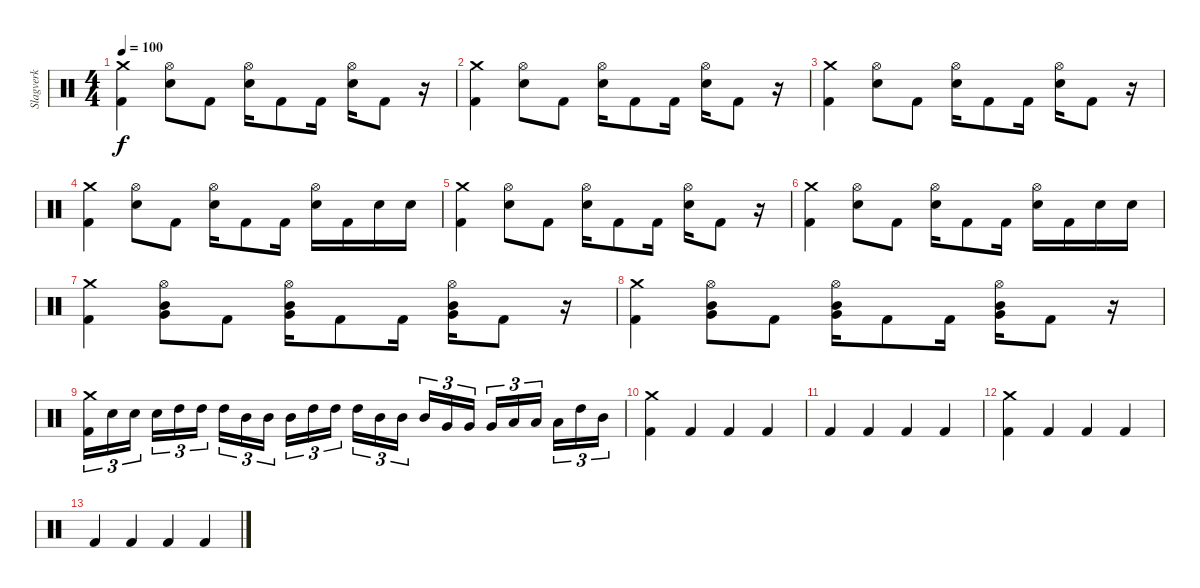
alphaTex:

\track ("Slagverk" "Slagverk") {instrument percussion}
\staff {score}
\articulation defaults
\ts (4 4)
\tempo 100
\clef neutral
\ks c
("Crash medium (hit)" "Kick (hit) 2").4{dy f} ("Hi-Hat (open)" "Electric Snare (hit)").8 "Kick (hit) 2".8 ("Hi-Hat (open)" "Electric Snare (hit)").16 "Kick (hit) 2".8 "Kick (hit) 2".16 ("Hi-Hat (open)" "Electric Snare (hit)").16 "Kick (hit) 2".8 r.16 |
("Crash medium (hit)" "Kick (hit) 2").4 ("Hi-Hat (open)" "Electric Snare (hit)").8 "Kick (hit) 2".8 ("Hi-Hat (open)" "Electric Snare (hit)").16 "Kick (hit) 2".8 "Kick (hit) 2".16 ("Hi-Hat (open)" "Electric Snare (hit)").16 "Kick (hit) 2".8 r.16 |
("Crash medium (hit)" "Kick (hit) 2").4 ("Hi-Hat (open)" "Electric Snare (hit)").8 "Kick (hit) 2".8 ("Hi-Hat (open)" "Electric Snare (hit)").16 "Kick (hit) 2".8 "Kick (hit) 2".16 ("Hi-Hat (open)" "Electric Snare (hit)").16 "Kick (hit) 2".8 r.16 |
("Crash medium (hit)" "Kick (hit) 2").4 ("Hi-Hat (open)" "Electric Snare (hit)").8 "Kick (hit) 2".8 ("Hi-Hat (open)" "Electric Snare (hit)").16 "Kick (hit) 2".8 "Kick (hit) 2".16 ("Hi-Hat (open)" "Electric Snare (hit)").16 "Kick (hit) 2".16 "Electric Snare (hit)".16 "Electric Snare (hit)".16 |
("Crash medium (hit)" "Kick (hit) 2").4 ("Hi-Hat (open)" "Electric Snare (hit)").8 "Kick (hit) 2".8 ("Hi-Hat (open)" "Electric Snare (hit)").16 "Kick (hit) 2".8 "Kick (hit) 2".16 ("Hi-Hat (open)" "Electric Snare (hit)").16 "Kick (hit) 2".8 r.16 |
("Crash medium (hit)" "Kick (hit) 2").4 ("Hi-Hat (open)" "Electric Snare (hit)").8 "Kick (hit) 2".8 ("Hi-Hat (open)" "Electric Snare (hit)").16 "Kick (hit) 2".8 "Kick (hit) 2".16 ("Hi-Hat (open)" "Electric Snare (hit)").16 "Kick (hit) 2".16 "Electric Snare (hit)".16 "Electric Snare (hit)".16 |
("Crash medium (hit)" "Kick (hit) 2").4 ("Hi-Hat (open)" "Very Low Tom (hit)" "Mid Tom (hit)").8 "Kick (hit) 2".8 ("Hi-Hat (open)" "Very Low Tom (hit)" "Mid Tom (hit)").16 "Kick (hit) 2".8 "Kick (hit) 2".16 ("Hi-Hat (open)" "Very Low Tom (hit)" "Mid Tom (hit)").16 "Kick (hit) 2".8 r.16 |
("Crash medium (hit)" "Kick (hit) 2").4 ("Hi-Hat (open)" "Very Low Tom (hit)" "Mid Tom (hit)").8 "Kick (hit) 2".8 ("Hi-Hat (open)" "Very Low Tom (hit)" "Mid Tom (hit)").16 "Kick (hit) 2".8 "Kick (hit) 2".16 ("Hi-Hat (open)" "Very Low Tom (hit)" "Mid Tom (hit)").16 "Kick (hit) 2".8 r.16 |
("Crash medium (hit)" "Kick (hit) 2").16{tu (3 2)} "Electric Snare (hit)".16{tu (3 2)} "Electric Snare (hit)".16{tu (3 2) beam splitsecondary} "Electric Snare (hit)".16{tu (3 2)} "High Tom (hit)".16{tu (3 2)} "High Tom (hit)".16{tu (3 2)} "High Tom (hit)".16{tu (3 2)} "Mid Tom (hit)".16{tu (3 2)} "Mid Tom (hit)".16{tu (3 2) beam splitsecondary} "Mid Tom (hit)".16{tu (3 2)} "High Tom (hit)".16{tu (3 2)} "High Tom (hit)".16{tu (3 2)} "High Tom (hit)".16{tu (3 2)} "Mid Tom (hit)".16{tu (3 2)} "Mid Tom (hit)".16{tu (3 2) beam splitsecondary} "Mid Tom (hit)".16{tu (3 2)} "Very Low Tom (hit)".16{tu (3 2)} "Very Low Tom (hit)".16{tu (3 2)} "Very Low Tom (hit)".16{tu (3 2)} "Low Floor Tom (hit)".16{tu (3 2)} "Low Floor Tom (hit)".16{tu (3 2) beam splitsecondary} "Low Floor Tom (hit)".16{tu (3 2)} "High Tom (hit)".16{tu (3 2)} "Mid Tom (hit)".16{tu (3 2)} |
("Crash medium (hit)" "Kick (hit) 2").4 "Kick (hit) 2".4 "Kick (hit) 2".4 "Kick (hit) 2".4 |
"Kick (hit) 2".4 "Kick (hit) 2".4 "Kick (hit) 2".4 "Kick (hit) 2".4 |
("Crash medium (hit)" "Kick (hit) 2").4 "Kick (hit) 2".4 "Kick (hit) 2".4 "Kick (hit) 2".4 |
"Kick (hit) 2".4 "Kick (hit) 2".4 "Kick (hit) 2".4 "Kick (hit) 2".4
